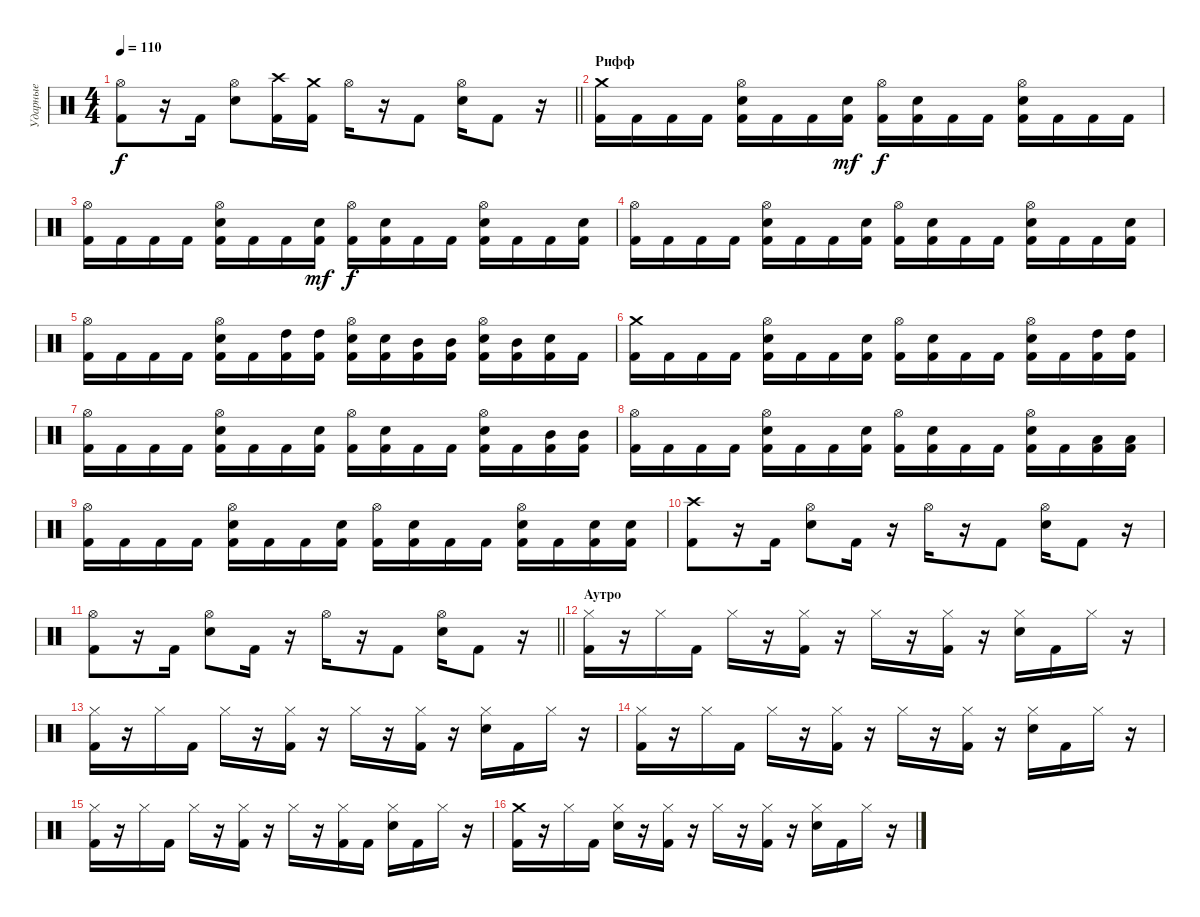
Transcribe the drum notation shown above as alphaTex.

\track ("Ударные" "Ударные") {instrument percussion}
\staff {score}
\articulation defaults
\ts (4 4)
\tempo 110
\clef neutral
\barLineRight lightlight
\ks c
("Hi-Hat (open)" "Kick (hit) 2").8{dy f} r.16 "Kick (hit) 2".16 ("Hi-Hat (open)" "Snare (hit) 2").8 ("Crash high (hit)" "Kick (hit) 2").16 ("Crash medium (hit)" "Kick (hit) 2").16 "Hi-Hat (open)".16 r.16 "Kick (hit) 2".8 ("Hi-Hat (open)" "Snare (hit) 2").16 "Kick (hit) 2".8 r.16 |
\section ("" "Рифф")
("Crash medium (hit)" "Kick (hit) 2").16 "Kick (hit) 2".16 "Kick (hit) 2".16 "Kick (hit) 2".16 ("Hi-Hat (open)" "Snare (hit) 2" "Kick (hit) 2").16 "Kick (hit) 2".16 "Kick (hit) 2".16 ("Snare (hit) 2" "Kick (hit) 2").16{dy mf} ("Hi-Hat (open)" "Kick (hit) 2").16{dy f} ("Snare (hit) 2" "Kick (hit) 2").16 "Kick (hit) 2".16 "Kick (hit) 2".16 ("Hi-Hat (open)" "Snare (hit) 2" "Kick (hit) 2").16 "Kick (hit) 2".16 "Kick (hit) 2".16 "Kick (hit) 2".16 |
("Hi-Hat (open)" "Kick (hit) 2").16 "Kick (hit) 2".16 "Kick (hit) 2".16 "Kick (hit) 2".16 ("Hi-Hat (open)" "Snare (hit) 2" "Kick (hit) 2").16 "Kick (hit) 2".16 "Kick (hit) 2".16 ("Snare (hit) 2" "Kick (hit) 2").16{dy mf} ("Hi-Hat (open)" "Kick (hit) 2").16{dy f} ("Snare (hit) 2" "Kick (hit) 2").16 "Kick (hit) 2".16 "Kick (hit) 2".16 ("Hi-Hat (open)" "Snare (hit) 2" "Kick (hit) 2").16 "Kick (hit) 2".16 "Kick (hit) 2".16 ("Snare (hit) 2" "Kick (hit) 2").16 |
("Hi-Hat (open)" "Kick (hit) 2").16 "Kick (hit) 2".16 "Kick (hit) 2".16 "Kick (hit) 2".16 ("Hi-Hat (open)" "Snare (hit) 2" "Kick (hit) 2").16 "Kick (hit) 2".16 "Kick (hit) 2".16 ("Snare (hit) 2" "Kick (hit) 2").16 ("Hi-Hat (open)" "Kick (hit) 2").16 ("Snare (hit) 2" "Kick (hit) 2").16 "Kick (hit) 2".16 "Kick (hit) 2".16 ("Hi-Hat (open)" "Snare (hit) 2" "Kick (hit) 2").16 "Kick (hit) 2".16 "Kick (hit) 2".16 ("Snare (hit) 2" "Kick (hit) 2").16 |
("Hi-Hat (open)" "Kick (hit) 2").16 "Kick (hit) 2".16 "Kick (hit) 2".16 "Kick (hit) 2".16 ("Hi-Hat (open)" "Snare (hit) 2" "Kick (hit) 2").16 "Kick (hit) 2".16 ("High Tom (hit)" "Kick (hit) 2").16 ("High Tom (hit)" "Kick (hit) 2").16 ("Hi-Hat (open)" "Snare (hit) 2" "Kick (hit) 2").16 ("Snare (hit) 2" "Kick (hit) 2").16 ("Mid Tom (hit)" "Kick (hit) 2").16 ("Mid Tom (hit)" "Kick (hit) 2").16 ("Hi-Hat (open)" "Snare (hit) 2" "Kick (hit) 2").16 ("Mid Tom (hit)" "Kick (hit) 2").16 ("Snare (hit) 2" "Kick (hit) 2").16 "Kick (hit) 2".16 |
("Crash medium (hit)" "Kick (hit) 2").16 "Kick (hit) 2".16 "Kick (hit) 2".16 "Kick (hit) 2".16 ("Hi-Hat (open)" "Snare (hit) 2" "Kick (hit) 2").16 "Kick (hit) 2".16 "Kick (hit) 2".16 ("Snare (hit) 2" "Kick (hit) 2").16 ("Hi-Hat (open)" "Kick (hit) 2").16 ("Snare (hit) 2" "Kick (hit) 2").16 "Kick (hit) 2".16 "Kick (hit) 2".16 ("Hi-Hat (open)" "Snare (hit) 2" "Kick (hit) 2").16 "Kick (hit) 2".16 ("High Tom (hit)" "Kick (hit) 2").16 ("High Tom (hit)" "Kick (hit) 2").16 |
("Hi-Hat (open)" "Kick (hit) 2").16 "Kick (hit) 2".16 "Kick (hit) 2".16 "Kick (hit) 2".16 ("Hi-Hat (open)" "Snare (hit) 2" "Kick (hit) 2").16 "Kick (hit) 2".16 "Kick (hit) 2".16 ("Snare (hit) 2" "Kick (hit) 2").16 ("Hi-Hat (open)" "Kick (hit) 2").16 ("Snare (hit) 2" "Kick (hit) 2").16 "Kick (hit) 2".16 "Kick (hit) 2".16 ("Hi-Hat (open)" "Snare (hit) 2" "Kick (hit) 2").16 "Kick (hit) 2".16 ("Mid Tom (hit)" "Kick (hit) 2").16 ("Mid Tom (hit)" "Kick (hit) 2").16 |
("Hi-Hat (open)" "Kick (hit) 2").16 "Kick (hit) 2".16 "Kick (hit) 2".16 "Kick (hit) 2".16 ("Hi-Hat (open)" "Snare (hit) 2" "Kick (hit) 2").16 "Kick (hit) 2".16 "Kick (hit) 2".16 ("Snare (hit) 2" "Kick (hit) 2").16 ("Hi-Hat (open)" "Kick (hit) 2").16 ("Snare (hit) 2" "Kick (hit) 2").16 "Kick (hit) 2".16 "Kick (hit) 2".16 ("Hi-Hat (open)" "Snare (hit) 2" "Kick (hit) 2").16 "Kick (hit) 2".16 ("Low Tom (hit)" "Kick (hit) 2").16 ("Low Tom (hit)" "Kick (hit) 2").16 |
("Hi-Hat (open)" "Kick (hit) 2").16 "Kick (hit) 2".16 "Kick (hit) 2".16 "Kick (hit) 2".16 ("Hi-Hat (open)" "Snare (hit) 2" "Kick (hit) 2").16 "Kick (hit) 2".16 "Kick (hit) 2".16 ("Snare (hit) 2" "Kick (hit) 2").16 ("Hi-Hat (open)" "Kick (hit) 2").16 ("Snare (hit) 2" "Kick (hit) 2").16 "Kick (hit) 2".16 "Kick (hit) 2".16 ("Hi-Hat (open)" "Snare (hit) 2" "Kick (hit) 2").16 "Kick (hit) 2".16 ("Snare (hit) 2" "Kick (hit) 2").16 ("Snare (hit) 2" "Kick (hit) 2").16 |
("Crash high (hit)" "Kick (hit) 2").8 r.16 "Kick (hit) 2".16 ("Hi-Hat (open)" "Snare (hit) 2").8 "Kick (hit) 2".16 r.16 "Hi-Hat (open)".16 r.16 "Kick (hit) 2".8 ("Hi-Hat (open)" "Snare (hit) 2").16 "Kick (hit) 2".8 r.16 |
\barLineRight lightlight
("Hi-Hat (open)" "Kick (hit) 2").8 r.16 "Kick (hit) 2".16 ("Hi-Hat (open)" "Snare (hit) 2").8 "Kick (hit) 2".16 r.16 "Hi-Hat (open)".16 r.16 "Kick (hit) 2".8 ("Hi-Hat (open)" "Snare (hit) 2").16 "Kick (hit) 2".8 r.16 |
\section ("" "Аутро")
("Hi-Hat (closed)" "Kick (hit) 2").16 r.16 "Hi-Hat (closed)".16 "Kick (hit) 2".16 "Hi-Hat (closed)".16 r.16 ("Hi-Hat (closed)" "Kick (hit) 2").16 r.16 "Hi-Hat (closed)".16 r.16 ("Hi-Hat (closed)" "Kick (hit) 2").16 r.16 ("Hi-Hat (closed)" "Snare (hit) 2").16 "Kick (hit) 2".16 "Hi-Hat (closed)".16 r.16 |
("Hi-Hat (closed)" "Kick (hit) 2").16 r.16 "Hi-Hat (closed)".16 "Kick (hit) 2".16 "Hi-Hat (closed)".16 r.16 ("Hi-Hat (closed)" "Kick (hit) 2").16 r.16 "Hi-Hat (closed)".16 r.16 ("Hi-Hat (closed)" "Kick (hit) 2").16 r.16 ("Hi-Hat (closed)" "Snare (hit) 2").16 "Kick (hit) 2".16 "Hi-Hat (closed)".16 r.16 |
("Hi-Hat (closed)" "Kick (hit) 2").16 r.16 "Hi-Hat (closed)".16 "Kick (hit) 2".16 "Hi-Hat (closed)".16 r.16 ("Hi-Hat (closed)" "Kick (hit) 2").16 r.16 "Hi-Hat (closed)".16 r.16 ("Hi-Hat (closed)" "Kick (hit) 2").16 r.16 ("Hi-Hat (closed)" "Snare (hit) 2").16 "Kick (hit) 2".16 "Hi-Hat (closed)".16 r.16 |
("Hi-Hat (closed)" "Kick (hit) 2").16 r.16 "Hi-Hat (closed)".16 "Kick (hit) 2".16 "Hi-Hat (closed)".16 r.16 ("Hi-Hat (closed)" "Kick (hit) 2").16 r.16 "Hi-Hat (closed)".16 r.16 ("Hi-Hat (closed)" "Kick (hit) 2").16 "Kick (hit) 2".16 ("Hi-Hat (closed)" "Snare (hit) 2").16 "Kick (hit) 2".16 "Hi-Hat (closed)".16 r.16 |
("Crash medium (hit)" "Kick (hit) 2").16 r.16 "Hi-Hat (closed)".16 "Kick (hit) 2".16 ("Hi-Hat (closed)" "Snare (hit) 2").16 r.16 ("Hi-Hat (closed)" "Kick (hit) 2").16 r.16 "Hi-Hat (closed)".16 r.16 ("Hi-Hat (closed)" "Kick (hit) 2").16 r.16 ("Hi-Hat (closed)" "Snare (hit) 2").16 "Kick (hit) 2".16 "Hi-Hat (closed)".16 r.16
